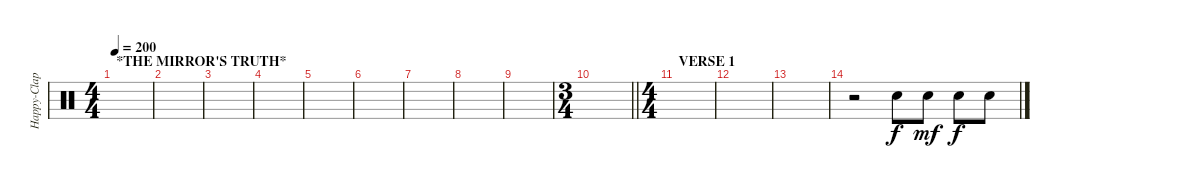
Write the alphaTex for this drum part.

\track ("Happy-Clappy" "Happy-Clap") {instrument percussion}
\staff {score}
\articulation defaults
\ts (4 4)
\section ("" "*THE MIRROR'S TRUTH*")
\tempo 200
\tempo 180
\tempo 200
\clef neutral
\ks c
|
|
|
|
|
|
|
|
|
\ts (3 4)
\barLineRight lightlight
|
\ts (4 4)
\section ("" "VERSE 1")
|
|
|
r.2 "Hand Clap (hit)".8 "Hand Clap (hit)".8{dy mf} "Hand Clap (hit)".8{dy f} "Hand Clap (hit)".8
